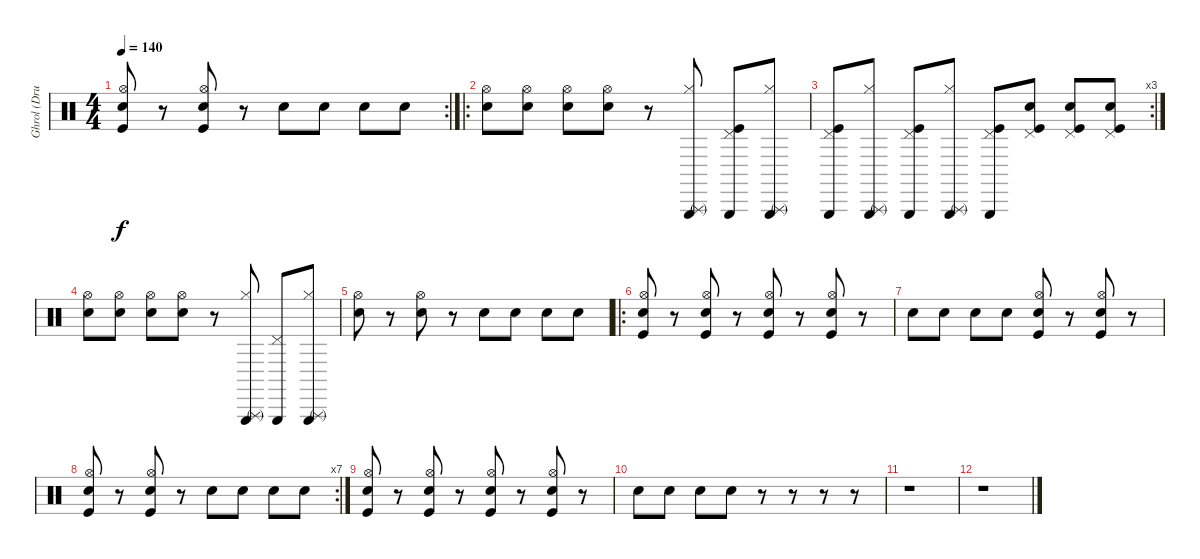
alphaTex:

\track ("Ghrol (Drums)" "Ghrol (Dru") {instrument percussion}
\staff {score}
\articulation defaults
\rc 2
\ts (4 4)
\tempo 140
\clef neutral
\ks c
("Snare (hit) 2" "Hi-Hat (open)" "Kick (hit)").8{dy f} r.8 ("Snare (hit) 2" "Hi-Hat (open)" "Kick (hit)").8 r.8 "Snare (hit) 2".8 "Snare (hit) 2".8 "Snare (hit) 2".8 "Snare (hit) 2".8 |
\ro
("Snare (hit) 2" "Hi-Hat (open)").8 ("Snare (hit) 2" "Hi-Hat (open)").8 ("Snare (hit) 2" "Hi-Hat (open)").8 ("Snare (hit) 2" "Hi-Hat (open)").8 r.8 ("Triangle (rnute)" "Triangle (hit)" "Hi-Hat (closed)").8 ("Pedal Hi-Hat (hit)" "Triangle (hit)" "Kick (hit)").8 ("Triangle (rnute)" "Triangle (hit)" "Hi-Hat (closed)").8 |
\rc 3
("Pedal Hi-Hat (hit)" "Triangle (hit)" "Kick (hit)").8 ("Triangle (rnute)" "Triangle (hit)" "Hi-Hat (closed)").8 ("Pedal Hi-Hat (hit)" "Triangle (hit)" "Kick (hit)").8 ("Triangle (rnute)" "Triangle (hit)" "Hi-Hat (closed)").8 ("Pedal Hi-Hat (hit)" "Triangle (hit)" "Kick (hit)").8 ("Snare (hit) 2" "Pedal Hi-Hat (hit)" "Kick (hit)").8 ("Snare (hit) 2" "Pedal Hi-Hat (hit)" "Kick (hit)").8 ("Snare (hit) 2" "Pedal Hi-Hat (hit)" "Kick (hit)").8 |
("Snare (hit) 2" "Hi-Hat (open)").8 ("Snare (hit) 2" "Hi-Hat (open)").8 ("Snare (hit) 2" "Hi-Hat (open)").8 ("Snare (hit) 2" "Hi-Hat (open)").8 r.8 ("Triangle (rnute)" "Triangle (hit)" "Hi-Hat (closed)").8 ("Pedal Hi-Hat (hit)" "Triangle (hit)").8 ("Triangle (rnute)" "Triangle (hit)" "Hi-Hat (closed)").8 |
("Snare (hit) 2" "Hi-Hat (open)").8 r.8 ("Snare (hit) 2" "Hi-Hat (open)").8 r.8 "Snare (hit) 2".8 "Snare (hit) 2".8 "Snare (hit) 2".8 "Snare (hit) 2".8 |
\ro
("Snare (hit) 2" "Hi-Hat (open)" "Kick (hit)").8 r.8 ("Snare (hit) 2" "Hi-Hat (open)" "Kick (hit)").8 r.8 ("Snare (hit) 2" "Hi-Hat (open)" "Kick (hit)").8 r.8 ("Snare (hit) 2" "Hi-Hat (open)" "Kick (hit)").8 r.8 |
"Snare (hit) 2".8 "Snare (hit) 2".8 "Snare (hit) 2".8 "Snare (hit) 2".8 ("Snare (hit) 2" "Hi-Hat (open)" "Kick (hit)").8 r.8 ("Snare (hit) 2" "Hi-Hat (open)" "Kick (hit)").8 r.8 |
\rc 7
("Snare (hit) 2" "Hi-Hat (open)" "Kick (hit)").8 r.8 ("Snare (hit) 2" "Hi-Hat (open)" "Kick (hit)").8 r.8 "Snare (hit) 2".8 "Snare (hit) 2".8 "Snare (hit) 2".8 "Snare (hit) 2".8 |
("Snare (hit) 2" "Hi-Hat (open)" "Kick (hit)").8 r.8 ("Snare (hit) 2" "Hi-Hat (open)" "Kick (hit)").8 r.8 ("Snare (hit) 2" "Hi-Hat (open)" "Kick (hit)").8 r.8 ("Snare (hit) 2" "Hi-Hat (open)" "Kick (hit)").8 r.8 |
"Snare (hit) 2".8 "Snare (hit) 2".8 "Snare (hit) 2".8 "Snare (hit) 2".8 r.8 r.8 r.8 r.8 |
r.1 |
r.1
